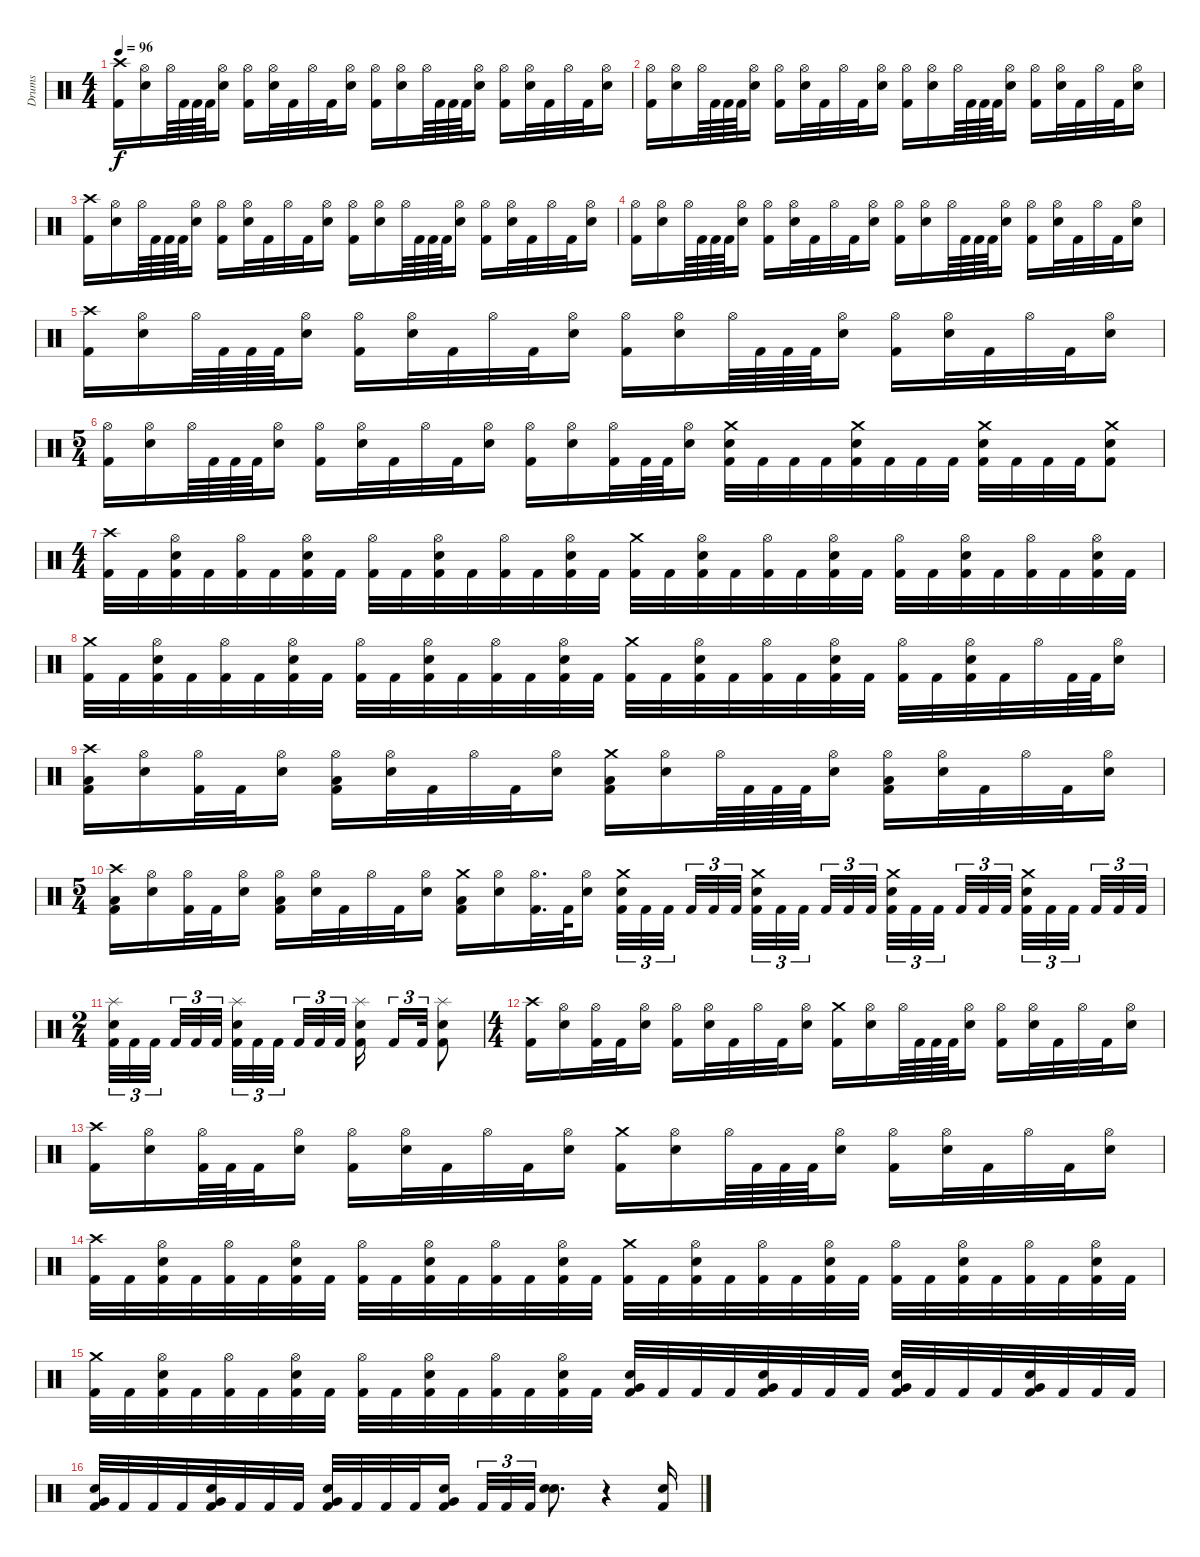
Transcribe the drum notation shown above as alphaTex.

\track ("Drums" "Drums") {instrument percussion}
\staff {score}
\articulation defaults
\ts (4 4)
\tempo 96
\clef neutral
\ks c
("Crash high (hit)" "Kick (hit) 2").16{dy f} ("Hi-Hat (open)" "Electric Snare (hit)").16 "Hi-Hat (open)".64 "Kick (hit) 2".64 "Kick (hit) 2".64 "Kick (hit) 2".64 ("Hi-Hat (open)" "Electric Snare (hit)").16 ("Hi-Hat (open)" "Kick (hit) 2").16 ("Hi-Hat (open)" "Electric Snare (hit)").32 "Kick (hit) 2".32 "Hi-Hat (open)".32 "Kick (hit) 2".32 ("Hi-Hat (open)" "Electric Snare (hit)").16 ("Hi-Hat (open)" "Kick (hit) 2").16 ("Hi-Hat (open)" "Electric Snare (hit)").16 "Hi-Hat (open)".64 "Kick (hit) 2".64 "Kick (hit) 2".64 "Kick (hit) 2".64 ("Hi-Hat (open)" "Electric Snare (hit)").16 ("Hi-Hat (open)" "Kick (hit) 2").16 ("Hi-Hat (open)" "Electric Snare (hit)").32 "Kick (hit) 2".32 "Hi-Hat (open)".32 "Kick (hit) 2".32 ("Hi-Hat (open)" "Electric Snare (hit)").16 |
("Hi-Hat (open)" "Kick (hit) 2").16 ("Hi-Hat (open)" "Electric Snare (hit)").16 "Hi-Hat (open)".64 "Kick (hit) 2".64 "Kick (hit) 2".64 "Kick (hit) 2".64 ("Hi-Hat (open)" "Electric Snare (hit)").16 ("Hi-Hat (open)" "Kick (hit) 2").16 ("Hi-Hat (open)" "Electric Snare (hit)").32 "Kick (hit) 2".32 "Hi-Hat (open)".32 "Kick (hit) 2".32 ("Hi-Hat (open)" "Electric Snare (hit)").16 ("Hi-Hat (open)" "Kick (hit) 2").16 ("Hi-Hat (open)" "Electric Snare (hit)").16 "Hi-Hat (open)".64 "Kick (hit) 2".64 "Kick (hit) 2".64 "Kick (hit) 2".64 ("Hi-Hat (open)" "Electric Snare (hit)").16 ("Hi-Hat (open)" "Kick (hit) 2").16 ("Hi-Hat (open)" "Electric Snare (hit)").32 "Kick (hit) 2".32 "Hi-Hat (open)".32 "Kick (hit) 2".32 ("Hi-Hat (open)" "Electric Snare (hit)").16 |
("Crash high (hit)" "Kick (hit) 2").16 ("Hi-Hat (open)" "Electric Snare (hit)").16 "Hi-Hat (open)".64 "Kick (hit) 2".64 "Kick (hit) 2".64 "Kick (hit) 2".64 ("Hi-Hat (open)" "Electric Snare (hit)").16 ("Hi-Hat (open)" "Kick (hit) 2").16 ("Hi-Hat (open)" "Electric Snare (hit)").32 "Kick (hit) 2".32 "Hi-Hat (open)".32 "Kick (hit) 2".32 ("Hi-Hat (open)" "Electric Snare (hit)").16 ("Hi-Hat (open)" "Kick (hit) 2").16 ("Hi-Hat (open)" "Electric Snare (hit)").16 "Hi-Hat (open)".64 "Kick (hit) 2".64 "Kick (hit) 2".64 "Kick (hit) 2".64 ("Hi-Hat (open)" "Electric Snare (hit)").16 ("Hi-Hat (open)" "Kick (hit) 2").16 ("Hi-Hat (open)" "Electric Snare (hit)").32 "Kick (hit) 2".32 "Hi-Hat (open)".32 "Kick (hit) 2".32 ("Hi-Hat (open)" "Electric Snare (hit)").16 |
("Hi-Hat (open)" "Kick (hit) 2").16 ("Hi-Hat (open)" "Electric Snare (hit)").16 "Hi-Hat (open)".64 "Kick (hit) 2".64 "Kick (hit) 2".64 "Kick (hit) 2".64 ("Hi-Hat (open)" "Electric Snare (hit)").16 ("Hi-Hat (open)" "Kick (hit) 2").16 ("Hi-Hat (open)" "Electric Snare (hit)").32 "Kick (hit) 2".32 "Hi-Hat (open)".32 "Kick (hit) 2".32 ("Hi-Hat (open)" "Electric Snare (hit)").16 ("Hi-Hat (open)" "Kick (hit) 2").16 ("Hi-Hat (open)" "Electric Snare (hit)").16 "Hi-Hat (open)".64 "Kick (hit) 2".64 "Kick (hit) 2".64 "Kick (hit) 2".64 ("Hi-Hat (open)" "Electric Snare (hit)").16 ("Hi-Hat (open)" "Kick (hit) 2").16 ("Hi-Hat (open)" "Electric Snare (hit)").32 "Kick (hit) 2".32 "Hi-Hat (open)".32 "Kick (hit) 2".32 ("Hi-Hat (open)" "Electric Snare (hit)").16 |
("Crash high (hit)" "Kick (hit) 2").16 ("Hi-Hat (open)" "Electric Snare (hit)").16 "Hi-Hat (open)".64 "Kick (hit) 2".64 "Kick (hit) 2".64 "Kick (hit) 2".64 ("Hi-Hat (open)" "Electric Snare (hit)").16 ("Hi-Hat (open)" "Kick (hit) 2").16 ("Hi-Hat (open)" "Electric Snare (hit)").32 "Kick (hit) 2".32 "Hi-Hat (open)".32 "Kick (hit) 2".32 ("Hi-Hat (open)" "Electric Snare (hit)").16 ("Hi-Hat (open)" "Kick (hit) 2").16 ("Hi-Hat (open)" "Electric Snare (hit)").16 "Hi-Hat (open)".64 "Kick (hit) 2".64 "Kick (hit) 2".64 "Kick (hit) 2".64 ("Hi-Hat (open)" "Electric Snare (hit)").16 ("Hi-Hat (open)" "Kick (hit) 2").16 ("Hi-Hat (open)" "Electric Snare (hit)").32 "Kick (hit) 2".32 "Hi-Hat (open)".32 "Kick (hit) 2".32 ("Hi-Hat (open)" "Electric Snare (hit)").16 |
\ts (5 4)
("Hi-Hat (open)" "Kick (hit) 2").16 ("Hi-Hat (open)" "Electric Snare (hit)").16 "Hi-Hat (open)".64 "Kick (hit) 2".64 "Kick (hit) 2".64 "Kick (hit) 2".64 ("Hi-Hat (open)" "Electric Snare (hit)").16 ("Hi-Hat (open)" "Kick (hit) 2").16 ("Hi-Hat (open)" "Electric Snare (hit)").32 "Kick (hit) 2".32 "Hi-Hat (open)".32 "Kick (hit) 2".32 ("Hi-Hat (open)" "Electric Snare (hit)").16 ("Hi-Hat (open)" "Kick (hit) 2").16 ("Hi-Hat (open)" "Electric Snare (hit)").16 ("Hi-Hat (open)" "Kick (hit) 2").32 "Kick (hit) 2".64 "Kick (hit) 2".64 ("Hi-Hat (open)" "Electric Snare (hit)").16 ("Crash medium (hit)" "Electric Snare (hit)" "Kick (hit) 2").32 "Kick (hit) 2".32 "Kick (hit) 2".32 "Kick (hit) 2".32 ("Crash medium (hit)" "Electric Snare (hit)" "Kick (hit) 2").32 "Kick (hit) 2".32 "Kick (hit) 2".32 "Kick (hit) 2".32 ("Crash medium (hit)" "Electric Snare (hit)" "Kick (hit) 2").32 "Kick (hit) 2".32 "Kick (hit) 2".32 "Kick (hit) 2".32 ("Crash medium (hit)" "Electric Snare (hit)" "Kick (hit) 2").8 |
\ts (4 4)
("Crash high (hit)" "Kick (hit) 2").32 "Kick (hit) 2".32 ("Hi-Hat (open)" "Electric Snare (hit)" "Kick (hit) 2").32 "Kick (hit) 2".32 ("Hi-Hat (open)" "Kick (hit) 2").32 "Kick (hit) 2".32 ("Hi-Hat (open)" "Electric Snare (hit)" "Kick (hit) 2").32 "Kick (hit) 2".32 ("Hi-Hat (open)" "Kick (hit) 2").32 "Kick (hit) 2".32 ("Hi-Hat (open)" "Electric Snare (hit)" "Kick (hit) 2").32 "Kick (hit) 2".32 ("Hi-Hat (open)" "Kick (hit) 2").32 "Kick (hit) 2".32 ("Hi-Hat (open)" "Electric Snare (hit)" "Kick (hit) 2").32 "Kick (hit) 2".32 ("Crash medium (hit)" "Kick (hit) 2").32 "Kick (hit) 2".32 ("Hi-Hat (open)" "Electric Snare (hit)" "Kick (hit) 2").32 "Kick (hit) 2".32 ("Hi-Hat (open)" "Kick (hit) 2").32 "Kick (hit) 2".32 ("Hi-Hat (open)" "Electric Snare (hit)" "Kick (hit) 2").32 "Kick (hit) 2".32 ("Hi-Hat (open)" "Kick (hit) 2").32 "Kick (hit) 2".32 ("Hi-Hat (open)" "Electric Snare (hit)" "Kick (hit) 2").32 "Kick (hit) 2".32 ("Hi-Hat (open)" "Kick (hit) 2").32 "Kick (hit) 2".32 ("Hi-Hat (open)" "Electric Snare (hit)" "Kick (hit) 2").32 "Kick (hit) 2".32 |
("Crash medium (hit)" "Kick (hit) 2").32 "Kick (hit) 2".32 ("Hi-Hat (open)" "Electric Snare (hit)" "Kick (hit) 2").32 "Kick (hit) 2".32 ("Hi-Hat (open)" "Kick (hit) 2").32 "Kick (hit) 2".32 ("Hi-Hat (open)" "Electric Snare (hit)" "Kick (hit) 2").32 "Kick (hit) 2".32 ("Hi-Hat (open)" "Kick (hit) 2").32 "Kick (hit) 2".32 ("Hi-Hat (open)" "Electric Snare (hit)" "Kick (hit) 2").32 "Kick (hit) 2".32 ("Hi-Hat (open)" "Kick (hit) 2").32 "Kick (hit) 2".32 ("Hi-Hat (open)" "Electric Snare (hit)" "Kick (hit) 2").32 "Kick (hit) 2".32 ("Crash medium (hit)" "Kick (hit) 2").32 "Kick (hit) 2".32 ("Hi-Hat (open)" "Electric Snare (hit)" "Kick (hit) 2").32 "Kick (hit) 2".32 ("Hi-Hat (open)" "Kick (hit) 2").32 "Kick (hit) 2".32 ("Hi-Hat (open)" "Electric Snare (hit)" "Kick (hit) 2").32 "Kick (hit) 2".32 ("Hi-Hat (open)" "Kick (hit) 2").32 "Kick (hit) 2".32 ("Hi-Hat (open)" "Electric Snare (hit)" "Kick (hit) 2").32 "Kick (hit) 2".32 "Hi-Hat (open)".32 "Kick (hit) 2".64 "Kick (hit) 2".64 ("Hi-Hat (open)" "Electric Snare (hit)").16 |
("Crash high (hit)" "Low Floor Tom (hit)" "Kick (hit) 2").16 ("Hi-Hat (open)" "Electric Snare (hit)").16 ("Hi-Hat (open)" "Kick (hit) 2").32 "Kick (hit) 2".32 ("Hi-Hat (open)" "Electric Snare (hit)").16 ("Hi-Hat (open)" "Low Floor Tom (hit)" "Kick (hit) 2").16 ("Hi-Hat (open)" "Electric Snare (hit)").32 "Kick (hit) 2".32 "Hi-Hat (open)".32 "Kick (hit) 2".32 ("Hi-Hat (open)" "Electric Snare (hit)").16 ("Crash medium (hit)" "Low Floor Tom (hit)" "Kick (hit) 2").16 ("Hi-Hat (open)" "Electric Snare (hit)").16 "Hi-Hat (open)".64 "Kick (hit) 2".64 "Kick (hit) 2".64 "Kick (hit) 2".64 ("Hi-Hat (open)" "Electric Snare (hit)").16 ("Hi-Hat (open)" "Low Floor Tom (hit)" "Kick (hit) 2").16 ("Hi-Hat (open)" "Electric Snare (hit)").32 "Kick (hit) 2".32 "Hi-Hat (open)".32 "Kick (hit) 2".32 ("Hi-Hat (open)" "Electric Snare (hit)").16 |
\ts (5 4)
("Crash high (hit)" "Low Floor Tom (hit)" "Kick (hit) 2").16 ("Hi-Hat (open)" "Electric Snare (hit)").16 ("Hi-Hat (open)" "Kick (hit) 2").32 "Kick (hit) 2".32 ("Hi-Hat (open)" "Electric Snare (hit)").16 ("Hi-Hat (open)" "Low Floor Tom (hit)" "Kick (hit) 2").16 ("Hi-Hat (open)" "Electric Snare (hit)").32 "Kick (hit) 2".32 "Hi-Hat (open)".32 "Kick (hit) 2".32 ("Hi-Hat (open)" "Electric Snare (hit)").16 ("Crash medium (hit)" "Low Floor Tom (hit)" "Kick (hit) 2").16 ("Hi-Hat (open)" "Electric Snare (hit)").16 ("Hi-Hat (open)" "Kick (hit) 2").32{d} "Kick (hit) 2".64 ("Hi-Hat (open)" "Electric Snare (hit)").16 ("Crash medium (hit)" "Electric Snare (hit)" "Kick (hit) 2").32{tu (3 2)} "Kick (hit) 2".32{tu (3 2)} "Kick (hit) 2".32{tu (3 2) beam splitsecondary} "Kick (hit) 2".32{tu (3 2)} "Kick (hit) 2".32{tu (3 2)} "Kick (hit) 2".32{tu (3 2) beam splitsecondary} ("Crash medium (hit)" "Electric Snare (hit)" "Kick (hit) 2").32{tu (3 2)} "Kick (hit) 2".32{tu (3 2)} "Kick (hit) 2".32{tu (3 2) beam splitsecondary} "Kick (hit) 2".32{tu (3 2)} "Kick (hit) 2".32{tu (3 2)} "Kick (hit) 2".32{tu (3 2)} ("Crash medium (hit)" "Electric Snare (hit)" "Kick (hit) 2").32{tu (3 2)} "Kick (hit) 2".32{tu (3 2)} "Kick (hit) 2".32{tu (3 2) beam splitsecondary} "Kick (hit) 2".32{tu (3 2)} "Kick (hit) 2".32{tu (3 2)} "Kick (hit) 2".32{tu (3 2) beam splitsecondary} ("Crash medium (hit)" "Electric Snare (hit)" "Kick (hit) 2").32{tu (3 2)} "Kick (hit) 2".32{tu (3 2)} "Kick (hit) 2".32{tu (3 2) beam splitsecondary} "Kick (hit) 2".32{tu (3 2)} "Kick (hit) 2".32{tu (3 2)} "Kick (hit) 2".32{tu (3 2)} |
\ts (2 4)
("Splash (hit)" "Electric Snare (hit)" "Kick (hit) 2").32{tu (3 2)} "Kick (hit) 2".32{tu (3 2)} "Kick (hit) 2".32{tu (3 2) beam splitsecondary} "Kick (hit) 2".32{tu (3 2)} "Kick (hit) 2".32{tu (3 2)} "Kick (hit) 2".32{tu (3 2) beam splitsecondary} ("Splash (hit)" "Electric Snare (hit)" "Kick (hit) 2").32{tu (3 2)} "Kick (hit) 2".32{tu (3 2)} "Kick (hit) 2".32{tu (3 2) beam splitsecondary} "Kick (hit) 2".32{tu (3 2)} "Kick (hit) 2".32{tu (3 2)} "Kick (hit) 2".32{tu (3 2)} ("Splash (hit)" "Electric Snare (hit)" "Kick (hit) 2").16{beam splitsecondary} "Kick (hit) 2".16{tu (3 2)} "Kick (hit) 2".32{tu (3 2)} ("Splash (hit)" "Electric Snare (hit)" "Kick (hit) 2").8 |
\ts (4 4)
("Crash high (hit)" "Kick (hit) 2").16 ("Hi-Hat (open)" "Electric Snare (hit)").16 ("Hi-Hat (open)" "Kick (hit) 2").32 "Kick (hit) 2".32 ("Hi-Hat (open)" "Electric Snare (hit)").16 ("Hi-Hat (open)" "Kick (hit) 2").16 ("Hi-Hat (open)" "Electric Snare (hit)").32 "Kick (hit) 2".32 "Hi-Hat (open)".32 "Kick (hit) 2".32 ("Hi-Hat (open)" "Electric Snare (hit)").16 ("Crash medium (hit)" "Kick (hit) 2").16 ("Hi-Hat (open)" "Electric Snare (hit)").16 "Hi-Hat (open)".64 "Kick (hit) 2".64 "Kick (hit) 2".64 "Kick (hit) 2".64 ("Hi-Hat (open)" "Electric Snare (hit)").16 ("Hi-Hat (open)" "Kick (hit) 2").16 ("Hi-Hat (open)" "Electric Snare (hit)").32 "Kick (hit) 2".32 "Hi-Hat (open)".32 "Kick (hit) 2".32 ("Hi-Hat (open)" "Electric Snare (hit)").16 |
("Crash high (hit)" "Kick (hit) 2").16 ("Hi-Hat (open)" "Electric Snare (hit)").16 ("Hi-Hat (open)" "Kick (hit) 2").64 "Kick (hit) 2".64 "Kick (hit) 2".32 ("Hi-Hat (open)" "Electric Snare (hit)").16 ("Hi-Hat (open)" "Kick (hit) 2").16 ("Hi-Hat (open)" "Electric Snare (hit)").32 "Kick (hit) 2".32 "Hi-Hat (open)".32 "Kick (hit) 2".32 ("Hi-Hat (open)" "Electric Snare (hit)").16 ("Crash medium (hit)" "Kick (hit) 2").16 ("Hi-Hat (open)" "Electric Snare (hit)").16 "Hi-Hat (open)".64 "Kick (hit) 2".64 "Kick (hit) 2".64 "Kick (hit) 2".64 ("Hi-Hat (open)" "Electric Snare (hit)").16 ("Hi-Hat (open)" "Kick (hit) 2").16 ("Hi-Hat (open)" "Electric Snare (hit)").32 "Kick (hit) 2".32 "Hi-Hat (open)".32 "Kick (hit) 2".32 ("Hi-Hat (open)" "Electric Snare (hit)").16 |
("Crash high (hit)" "Kick (hit) 2").32 "Kick (hit) 2".32 ("Hi-Hat (open)" "Electric Snare (hit)" "Kick (hit) 2").32 "Kick (hit) 2".32 ("Hi-Hat (open)" "Kick (hit) 2").32 "Kick (hit) 2".32 ("Hi-Hat (open)" "Electric Snare (hit)" "Kick (hit) 2").32 "Kick (hit) 2".32 ("Hi-Hat (open)" "Kick (hit) 2").32 "Kick (hit) 2".32 ("Hi-Hat (open)" "Electric Snare (hit)" "Kick (hit) 2").32 "Kick (hit) 2".32 ("Hi-Hat (open)" "Kick (hit) 2").32 "Kick (hit) 2".32 ("Hi-Hat (open)" "Electric Snare (hit)" "Kick (hit) 2").32 "Kick (hit) 2".32 ("Crash medium (hit)" "Kick (hit) 2").32 "Kick (hit) 2".32 ("Hi-Hat (open)" "Electric Snare (hit)" "Kick (hit) 2").32 "Kick (hit) 2".32 ("Hi-Hat (open)" "Kick (hit) 2").32 "Kick (hit) 2".32 ("Hi-Hat (open)" "Electric Snare (hit)" "Kick (hit) 2").32 "Kick (hit) 2".32 ("Hi-Hat (open)" "Kick (hit) 2").32 "Kick (hit) 2".32 ("Hi-Hat (open)" "Electric Snare (hit)" "Kick (hit) 2").32 "Kick (hit) 2".32 ("Hi-Hat (open)" "Kick (hit) 2").32 "Kick (hit) 2".32 ("Hi-Hat (open)" "Electric Snare (hit)" "Kick (hit) 2").32 "Kick (hit) 2".32 |
("Crash medium (hit)" "Kick (hit) 2").32 "Kick (hit) 2".32 ("Hi-Hat (open)" "Electric Snare (hit)" "Kick (hit) 2").32 "Kick (hit) 2".32 ("Hi-Hat (open)" "Kick (hit) 2").32 "Kick (hit) 2".32 ("Hi-Hat (open)" "Electric Snare (hit)" "Kick (hit) 2").32 "Kick (hit) 2".32 ("Hi-Hat (open)" "Kick (hit) 2").32 "Kick (hit) 2".32 ("Hi-Hat (open)" "Electric Snare (hit)" "Kick (hit) 2").32 "Kick (hit) 2".32 ("Hi-Hat (open)" "Kick (hit) 2").32 "Kick (hit) 2".32 ("Hi-Hat (open)" "Electric Snare (hit)" "Kick (hit) 2").32 "Kick (hit) 2".32 ("Very Low Tom (hit)" "Electric Snare (hit)" "Kick (hit) 2").32 "Kick (hit) 2".32 "Kick (hit) 2".32 "Kick (hit) 2".32 ("Very Low Tom (hit)" "Electric Snare (hit)" "Kick (hit) 2").32 "Kick (hit) 2".32 "Kick (hit) 2".32 "Kick (hit) 2".32 ("Very Low Tom (hit)" "Electric Snare (hit)" "Kick (hit) 2").32 "Kick (hit) 2".32 "Kick (hit) 2".32 "Kick (hit) 2".32 ("Very Low Tom (hit)" "Electric Snare (hit)" "Kick (hit) 2").32 "Kick (hit) 2".32 "Kick (hit) 2".32 "Kick (hit) 2".32 |
("Very Low Tom (hit)" "Electric Snare (hit)" "Kick (hit) 2").32 "Kick (hit) 2".32 "Kick (hit) 2".32 "Kick (hit) 2".32 ("Very Low Tom (hit)" "Electric Snare (hit)" "Kick (hit) 2").32 "Kick (hit) 2".32 "Kick (hit) 2".32 "Kick (hit) 2".32 ("Very Low Tom (hit)" "Electric Snare (hit)" "Kick (hit) 2").32 "Kick (hit) 2".32 "Kick (hit) 2".32 "Kick (hit) 2".32 ("Very Low Tom (hit)" "Electric Snare (hit)" "Kick (hit) 2").16{beam splitsecondary} "Kick (hit) 2".32{tu (3 2)} "Kick (hit) 2".32{tu (3 2)} "Kick (hit) 2".32{tu (3 2)} ("Electric Snare (hit)" "Electric Snare (hit)").8{d bd 30} r.4 ("Electric Snare (hit)" "Kick (hit) 2").16
